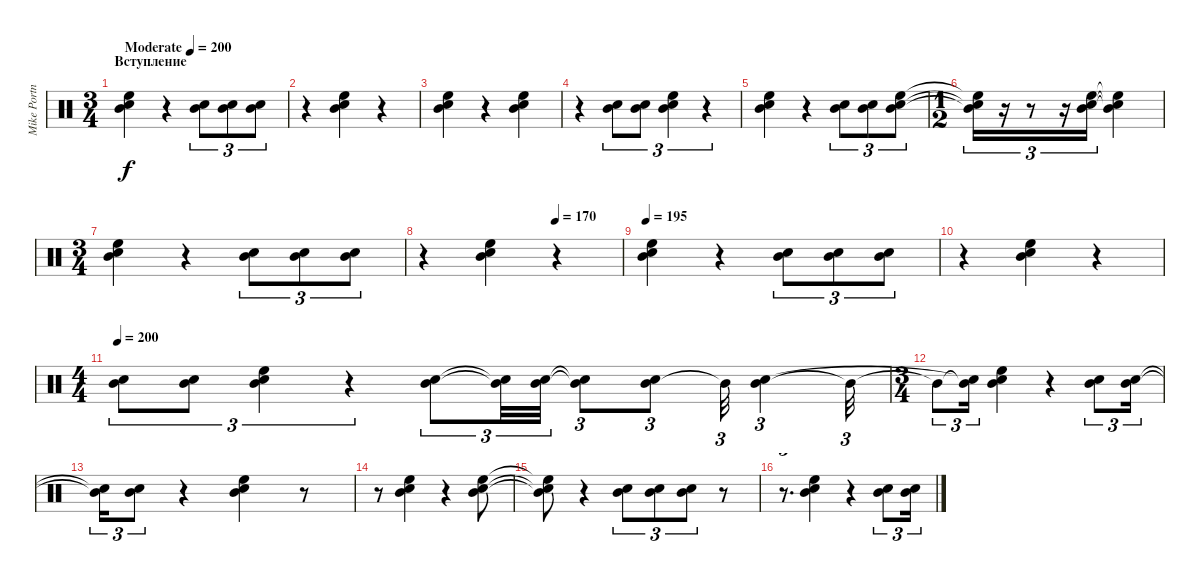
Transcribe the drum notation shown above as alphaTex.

\track ("Mike Portnoy" "Mike Portn") {instrument percussion}
\staff {score}
\articulation defaults
\ts (3 4)
\section ("" "Вступление")
\tempo (200 "Moderate")
\tempo 195
\tempo (200 "Moderate")
\clef neutral
\ks c
("Mid Tom (hit)" "Electric Snare (hit)" "High Floor Tom (hit)").4{dy f} r.4 ("Mid Tom (hit)" "Electric Snare (hit)").8{tu (3 2)} ("Mid Tom (hit)" "Electric Snare (hit)").8{tu (3 2)} ("Mid Tom (hit)" "Electric Snare (hit)").8{tu (3 2)} |
r.4 ("Mid Tom (hit)" "Electric Snare (hit)" "High Floor Tom (hit)").4 r.4 |
("Mid Tom (hit)" "Electric Snare (hit)" "High Floor Tom (hit)").4 r.4 ("Mid Tom (hit)" "Electric Snare (hit)" "High Floor Tom (hit)").4 |
r.4 ("Mid Tom (hit)" "Electric Snare (hit)").8{tu (3 2)} ("Mid Tom (hit)" "Electric Snare (hit)").8{tu (3 2)} ("Mid Tom (hit)" "Electric Snare (hit)" "High Floor Tom (hit)").4{tu (3 2)} r.4{tu (3 2)} |
("Mid Tom (hit)" "Electric Snare (hit)" "High Floor Tom (hit)").4 r.4 ("Mid Tom (hit)" "Electric Snare (hit)").8{tu (3 2)} ("Mid Tom (hit)" "Electric Snare (hit)").8{tu (3 2)} ("Mid Tom (hit)" "Electric Snare (hit)" "High Floor Tom (hit)").8{tu (3 2)} |
\ts (1 2)
("Mid Tom (hit)"{t} "Electric Snare (hit)"{t} "High Floor Tom (hit)"{t}).16{tu (3 2)} r.16{tu (3 2)} r.8{tu (3 2)} r.16{tu (3 2)} ("Mid Tom (hit)" "Electric Snare (hit)" "High Floor Tom (hit)").16{tu (3 2)} ("Mid Tom (hit)"{t} "Electric Snare (hit)"{t} "High Floor Tom (hit)"{t}).4 |
\ts (3 4)
("Mid Tom (hit)" "Electric Snare (hit)" "High Floor Tom (hit)").4 r.4 ("Mid Tom (hit)" "Electric Snare (hit)").8{tu (3 2)} ("Mid Tom (hit)" "Electric Snare (hit)").8{tu (3 2)} ("Mid Tom (hit)" "Electric Snare (hit)").8{tu (3 2)} |
\tempo (170 0.6666666666666666)
r.4 ("Mid Tom (hit)" "Electric Snare (hit)" "High Floor Tom (hit)").4 r.4 |
\tempo 195
("Mid Tom (hit)" "Electric Snare (hit)" "High Floor Tom (hit)").4 r.4 ("Mid Tom (hit)" "Electric Snare (hit)").8{tu (3 2)} ("Mid Tom (hit)" "Electric Snare (hit)").8{tu (3 2)} ("Mid Tom (hit)" "Electric Snare (hit)").8{tu (3 2)} |
r.4 ("Mid Tom (hit)" "Electric Snare (hit)" "High Floor Tom (hit)").4 r.4 |
\ts (4 4)
\tempo 200
("Mid Tom (hit)" "Electric Snare (hit)").8{tu (3 2)} ("Mid Tom (hit)" "Electric Snare (hit)").8{tu (3 2)} ("Mid Tom (hit)" "Electric Snare (hit)" "High Floor Tom (hit)").4{tu (3 2)} r.4{tu (3 2)} ("Mid Tom (hit)" "Electric Snare (hit)").8{tu (3 2)} ("Mid Tom (hit)"{t} "Electric Snare (hit)"{t}).32{tu (3 2)} ("Mid Tom (hit)" "Electric Snare (hit)").32{tu (3 2)} ("Mid Tom (hit)"{t} "Electric Snare (hit)"{t}).8{tu (3 2)} ("Mid Tom (hit)" "Electric Snare (hit)").8{tu (3 2)} "Mid Tom (hit)"{t}.32{tu (3 2)} ("Mid Tom (hit)" "Electric Snare (hit)").4{tu (3 2)} "Mid Tom (hit)"{t}.32{tu (3 2)} |
\ts (3 4)
"Mid Tom (hit)"{t}.8{tu (3 2)} ("Mid Tom (hit)"{t} "Electric Snare (hit)"{t}).16{tu (3 2)} ("Mid Tom (hit)" "Electric Snare (hit)" "High Floor Tom (hit)").4 r.4 ("Mid Tom (hit)" "Electric Snare (hit)").8{tu (3 2)} ("Mid Tom (hit)" "Electric Snare (hit)").16{tu (3 2)} |
("Mid Tom (hit)"{t} "Electric Snare (hit)"{t}).16{tu (3 2)} ("Mid Tom (hit)" "Electric Snare (hit)").8{tu (3 2)} r.4 ("Mid Tom (hit)" "Electric Snare (hit)" "High Floor Tom (hit)").4 r.8 |
r.8 ("Mid Tom (hit)" "Electric Snare (hit)" "High Floor Tom (hit)").4 r.4 ("Mid Tom (hit)" "Electric Snare (hit)" "High Floor Tom (hit)").8 |
("Mid Tom (hit)"{t} "Electric Snare (hit)"{t} "High Floor Tom (hit)"{t}).8 r.4 ("Mid Tom (hit)" "Electric Snare (hit)").8{tu (3 2)} ("Mid Tom (hit)" "Electric Snare (hit)").8{tu (3 2)} ("Mid Tom (hit)" "Electric Snare (hit)").8{tu (3 2)} r.8 |
r.8{d tu (3 2)} ("Mid Tom (hit)" "Electric Snare (hit)" "High Floor Tom (hit)").4 r.4 ("Mid Tom (hit)" "Electric Snare (hit)").8{tu (3 2)} ("Mid Tom (hit)" "Electric Snare (hit)").16{tu (3 2)}
